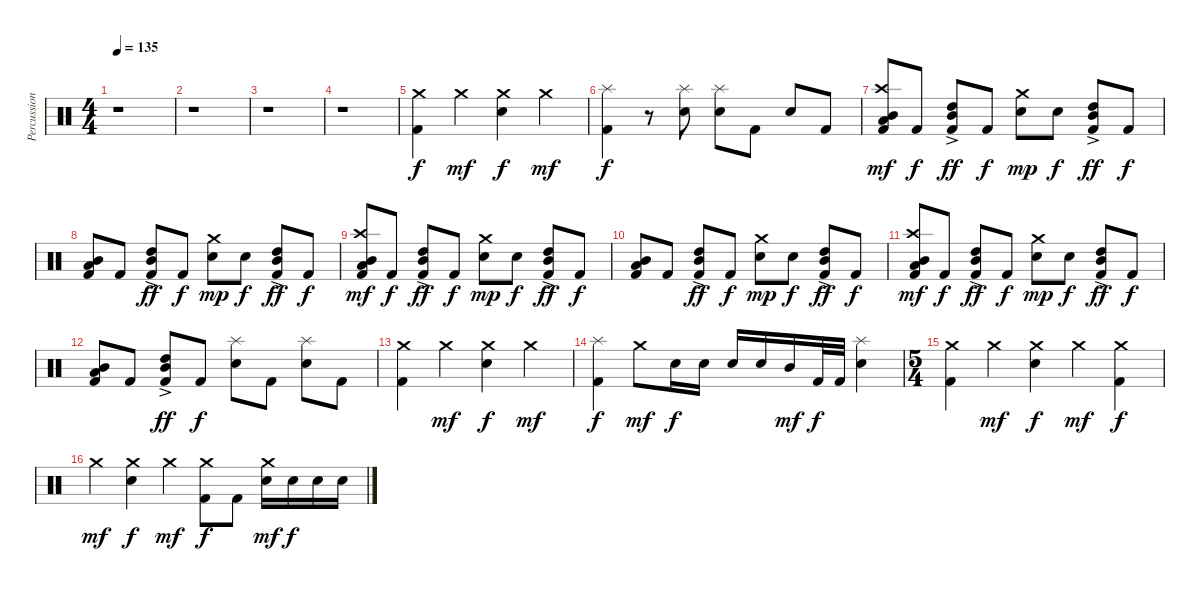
\track ("Percussion" "Percussion") {instrument percussion}
\staff {score}
\articulation defaults
\ts (4 4)
\tempo 135
\clef neutral
\ks c
r.1{dy f} |
r.1 |
r.1 |
r.1 |
("Crash medium (hit)" "Kick (hit) 2").4 "Crash medium (hit)".4{dy mf} ("Crash medium (hit)" "Snare (hit) 2").4{dy f} "Crash medium (hit)".4{dy mf} |
("Splash (hit)" "Kick (hit) 2").4{dy f} r.8 ("Splash (hit)" "Snare (hit) 2").8 ("Splash (hit)" "Snare (hit) 2").8 "Kick (hit) 2".8 "Snare (hit) 2".8 "Kick (hit) 2".8 |
("Crash high (hit)" "Mid Tom (hit)" "Low Tom (hit)" "Kick (hit) 2").8{dy mf} "Kick (hit) 2".8{dy f} ("High Tom (hit)"{ac} "Mid Tom (hit)"{ac} "Kick (hit) 2").8{dy ff} "Kick (hit) 2".8{dy f} ("Crash medium (hit)" "Snare (hit) 2").8{dy mp} "Snare (hit) 2".8{dy f} ("High Tom (hit)"{ac} "Mid Tom (hit)"{ac} "Kick (hit) 2").8{dy ff} "Kick (hit) 2".8{dy f} |
("Mid Tom (hit)" "Low Tom (hit)" "Kick (hit) 2").8 "Kick (hit) 2".8 ("High Tom (hit)"{ac} "Mid Tom (hit)"{ac} "Kick (hit) 2").8{dy ff} "Kick (hit) 2".8{dy f} ("Crash medium (hit)" "Snare (hit) 2").8{dy mp} "Snare (hit) 2".8{dy f} ("High Tom (hit)"{ac} "Mid Tom (hit)"{ac} "Kick (hit) 2").8{dy ff} "Kick (hit) 2".8{dy f} |
("Crash high (hit)" "Mid Tom (hit)" "Low Tom (hit)" "Kick (hit) 2").8{dy mf} "Kick (hit) 2".8{dy f} ("High Tom (hit)"{ac} "Mid Tom (hit)"{ac} "Kick (hit) 2").8{dy ff} "Kick (hit) 2".8{dy f} ("Crash medium (hit)" "Snare (hit) 2").8{dy mp} "Snare (hit) 2".8{dy f} ("High Tom (hit)"{ac} "Mid Tom (hit)"{ac} "Kick (hit) 2").8{dy ff} "Kick (hit) 2".8{dy f} |
("Mid Tom (hit)" "Low Tom (hit)" "Kick (hit) 2").8 "Kick (hit) 2".8 ("High Tom (hit)"{ac} "Mid Tom (hit)"{ac} "Kick (hit) 2").8{dy ff} "Kick (hit) 2".8{dy f} ("Crash medium (hit)" "Snare (hit) 2").8{dy mp} "Snare (hit) 2".8{dy f} ("High Tom (hit)"{ac} "Mid Tom (hit)"{ac} "Kick (hit) 2").8{dy ff} "Kick (hit) 2".8{dy f} |
("Crash high (hit)" "Mid Tom (hit)" "Low Tom (hit)" "Kick (hit) 2").8{dy mf} "Kick (hit) 2".8{dy f} ("High Tom (hit)"{ac} "Mid Tom (hit)"{ac} "Kick (hit) 2").8{dy ff} "Kick (hit) 2".8{dy f} ("Crash medium (hit)" "Snare (hit) 2").8{dy mp} "Snare (hit) 2".8{dy f} ("High Tom (hit)"{ac} "Mid Tom (hit)"{ac} "Kick (hit) 2").8{dy ff} "Kick (hit) 2".8{dy f} |
("Mid Tom (hit)" "Low Tom (hit)" "Kick (hit) 2").8 "Kick (hit) 2".8 ("High Tom (hit)"{ac} "Mid Tom (hit)"{ac} "Kick (hit) 2").8{dy ff} "Kick (hit) 2".8{dy f} ("Splash (hit)" "Snare (hit) 2").8 "Kick (hit) 2".8 ("Splash (hit)" "Snare (hit) 2").8 "Kick (hit) 2".8 |
("Crash medium (hit)" "Kick (hit) 2").4 "Crash medium (hit)".4{dy mf} ("Crash medium (hit)" "Snare (hit) 2").4{dy f} "Crash medium (hit)".4{dy mf} |
("Splash (hit)" "Kick (hit) 2").4{dy f} "Crash medium (hit)".8{dy mf} "Snare (hit) 2".16{dy f} "Snare (hit) 2".16 "Snare (hit) 2".16 "Snare (hit) 2".16 "Mid Tom (hit)".16{dy mf} "Kick (hit) 2".32{dy f} "Kick (hit) 2".32 ("Splash (hit)" "Snare (hit) 2").4 |
\ts (5 4)
("Crash medium (hit)" "Kick (hit) 2").4 "Crash medium (hit)".4{dy mf} ("Crash medium (hit)" "Snare (hit) 2").4{dy f} "Crash medium (hit)".4{dy mf} ("Crash medium (hit)" "Kick (hit) 2").4{dy f} |
"Crash medium (hit)".4{dy mf} ("Crash medium (hit)" "Snare (hit) 2").4{dy f} "Crash medium (hit)".4{dy mf} ("Crash medium (hit)" "Kick (hit) 2").8{dy f} "Kick (hit) 2".8 ("Crash medium (hit)" "Snare (hit) 2").16{dy mf} "Snare (hit) 2".16{dy f} "Snare (hit) 2".16 "Snare (hit) 2".16
